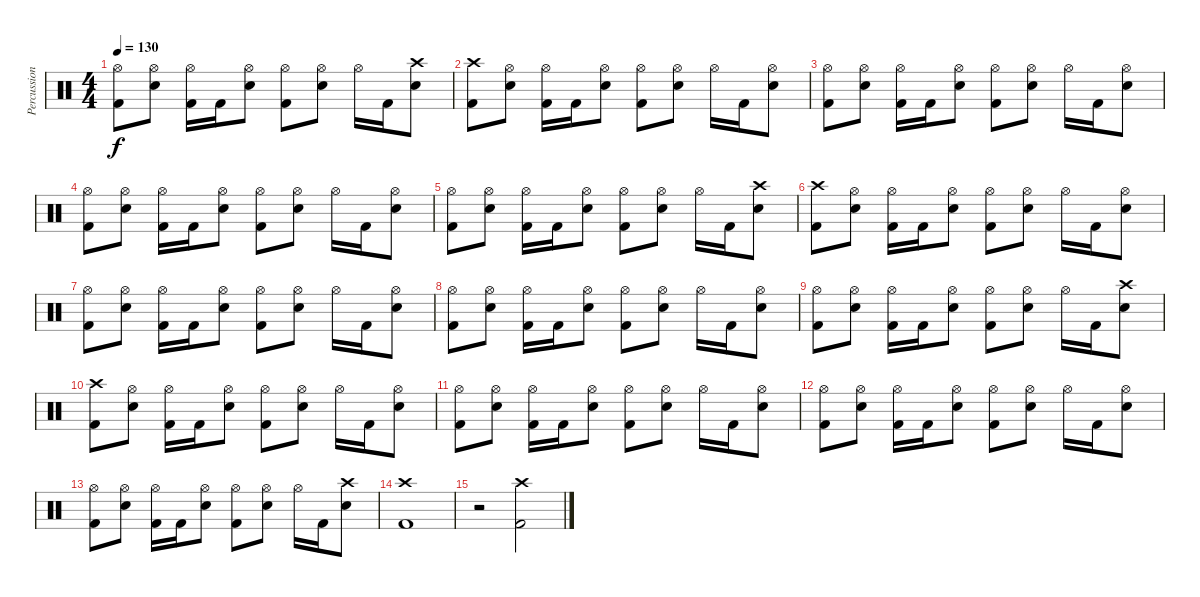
\track ("Percussion" "Percussion") {instrument percussion}
\staff {score}
\articulation defaults
\ts (4 4)
\tempo 130
\clef neutral
\ks c
("Hi-Hat (open)" "Kick (hit) 2").8{dy f} ("Hi-Hat (open)" "Electric Snare (hit)").8 ("Hi-Hat (open)" "Kick (hit) 2").16 "Kick (hit) 2".16 ("Hi-Hat (open)" "Electric Snare (hit)").8 ("Hi-Hat (open)" "Kick (hit) 2").8 ("Hi-Hat (open)" "Electric Snare (hit)").8 "Hi-Hat (open)".16 "Kick (hit) 2".16 ("Crash high (hit)" "Electric Snare (hit)").8 |
("Crash high (hit)" "Kick (hit) 2").8 ("Hi-Hat (open)" "Electric Snare (hit)").8 ("Hi-Hat (open)" "Kick (hit) 2").16 "Kick (hit) 2".16 ("Hi-Hat (open)" "Electric Snare (hit)").8 ("Hi-Hat (open)" "Kick (hit) 2").8 ("Hi-Hat (open)" "Electric Snare (hit)").8 "Hi-Hat (open)".16 "Kick (hit) 2".16 ("Hi-Hat (open)" "Electric Snare (hit)").8 |
("Hi-Hat (open)" "Kick (hit) 2").8 ("Hi-Hat (open)" "Electric Snare (hit)").8 ("Hi-Hat (open)" "Kick (hit) 2").16 "Kick (hit) 2".16 ("Hi-Hat (open)" "Electric Snare (hit)").8 ("Hi-Hat (open)" "Kick (hit) 2").8 ("Hi-Hat (open)" "Electric Snare (hit)").8 "Hi-Hat (open)".16 "Kick (hit) 2".16 ("Hi-Hat (open)" "Electric Snare (hit)").8 |
("Hi-Hat (open)" "Kick (hit) 2").8 ("Hi-Hat (open)" "Electric Snare (hit)").8 ("Hi-Hat (open)" "Kick (hit) 2").16 "Kick (hit) 2".16 ("Hi-Hat (open)" "Electric Snare (hit)").8 ("Hi-Hat (open)" "Kick (hit) 2").8 ("Hi-Hat (open)" "Electric Snare (hit)").8 "Hi-Hat (open)".16 "Kick (hit) 2".16 ("Hi-Hat (open)" "Electric Snare (hit)").8 |
("Hi-Hat (open)" "Kick (hit) 2").8 ("Hi-Hat (open)" "Electric Snare (hit)").8 ("Hi-Hat (open)" "Kick (hit) 2").16 "Kick (hit) 2".16 ("Hi-Hat (open)" "Electric Snare (hit)").8 ("Hi-Hat (open)" "Kick (hit) 2").8 ("Hi-Hat (open)" "Electric Snare (hit)").8 "Hi-Hat (open)".16 "Kick (hit) 2".16 ("Crash high (hit)" "Electric Snare (hit)").8 |
("Crash high (hit)" "Kick (hit) 2").8 ("Hi-Hat (open)" "Electric Snare (hit)").8 ("Hi-Hat (open)" "Kick (hit) 2").16 "Kick (hit) 2".16 ("Hi-Hat (open)" "Electric Snare (hit)").8 ("Hi-Hat (open)" "Kick (hit) 2").8 ("Hi-Hat (open)" "Electric Snare (hit)").8 "Hi-Hat (open)".16 "Kick (hit) 2".16 ("Hi-Hat (open)" "Electric Snare (hit)").8 |
("Hi-Hat (open)" "Kick (hit) 2").8 ("Hi-Hat (open)" "Electric Snare (hit)").8 ("Hi-Hat (open)" "Kick (hit) 2").16 "Kick (hit) 2".16 ("Hi-Hat (open)" "Electric Snare (hit)").8 ("Hi-Hat (open)" "Kick (hit) 2").8 ("Hi-Hat (open)" "Electric Snare (hit)").8 "Hi-Hat (open)".16 "Kick (hit) 2".16 ("Hi-Hat (open)" "Electric Snare (hit)").8 |
("Hi-Hat (open)" "Kick (hit) 2").8 ("Hi-Hat (open)" "Electric Snare (hit)").8 ("Hi-Hat (open)" "Kick (hit) 2").16 "Kick (hit) 2".16 ("Hi-Hat (open)" "Electric Snare (hit)").8 ("Hi-Hat (open)" "Kick (hit) 2").8 ("Hi-Hat (open)" "Electric Snare (hit)").8 "Hi-Hat (open)".16 "Kick (hit) 2".16 ("Hi-Hat (open)" "Electric Snare (hit)").8 |
("Hi-Hat (open)" "Kick (hit) 2").8 ("Hi-Hat (open)" "Electric Snare (hit)").8 ("Hi-Hat (open)" "Kick (hit) 2").16 "Kick (hit) 2".16 ("Hi-Hat (open)" "Electric Snare (hit)").8 ("Hi-Hat (open)" "Kick (hit) 2").8 ("Hi-Hat (open)" "Electric Snare (hit)").8 "Hi-Hat (open)".16 "Kick (hit) 2".16 ("Crash high (hit)" "Electric Snare (hit)").8 |
("Crash high (hit)" "Kick (hit) 2").8 ("Hi-Hat (open)" "Electric Snare (hit)").8 ("Hi-Hat (open)" "Kick (hit) 2").16 "Kick (hit) 2".16 ("Hi-Hat (open)" "Electric Snare (hit)").8 ("Hi-Hat (open)" "Kick (hit) 2").8 ("Hi-Hat (open)" "Electric Snare (hit)").8 "Hi-Hat (open)".16 "Kick (hit) 2".16 ("Hi-Hat (open)" "Electric Snare (hit)").8 |
("Hi-Hat (open)" "Kick (hit) 2").8 ("Hi-Hat (open)" "Electric Snare (hit)").8 ("Hi-Hat (open)" "Kick (hit) 2").16 "Kick (hit) 2".16 ("Hi-Hat (open)" "Electric Snare (hit)").8 ("Hi-Hat (open)" "Kick (hit) 2").8 ("Hi-Hat (open)" "Electric Snare (hit)").8 "Hi-Hat (open)".16 "Kick (hit) 2".16 ("Hi-Hat (open)" "Electric Snare (hit)").8 |
("Hi-Hat (open)" "Kick (hit) 2").8 ("Hi-Hat (open)" "Electric Snare (hit)").8 ("Hi-Hat (open)" "Kick (hit) 2").16 "Kick (hit) 2".16 ("Hi-Hat (open)" "Electric Snare (hit)").8 ("Hi-Hat (open)" "Kick (hit) 2").8 ("Hi-Hat (open)" "Electric Snare (hit)").8 "Hi-Hat (open)".16 "Kick (hit) 2".16 ("Hi-Hat (open)" "Electric Snare (hit)").8 |
("Hi-Hat (open)" "Kick (hit) 2").8 ("Hi-Hat (open)" "Electric Snare (hit)").8 ("Hi-Hat (open)" "Kick (hit) 2").16 "Kick (hit) 2".16 ("Hi-Hat (open)" "Electric Snare (hit)").8 ("Hi-Hat (open)" "Kick (hit) 2").8 ("Hi-Hat (open)" "Electric Snare (hit)").8 "Hi-Hat (open)".16 "Kick (hit) 2".16 ("Crash high (hit)" "Electric Snare (hit)").8 |
("Crash high (hit)" "Kick (hit) 2").1 |
r.2 ("Crash high (hit)" "Kick (hit) 2").2
